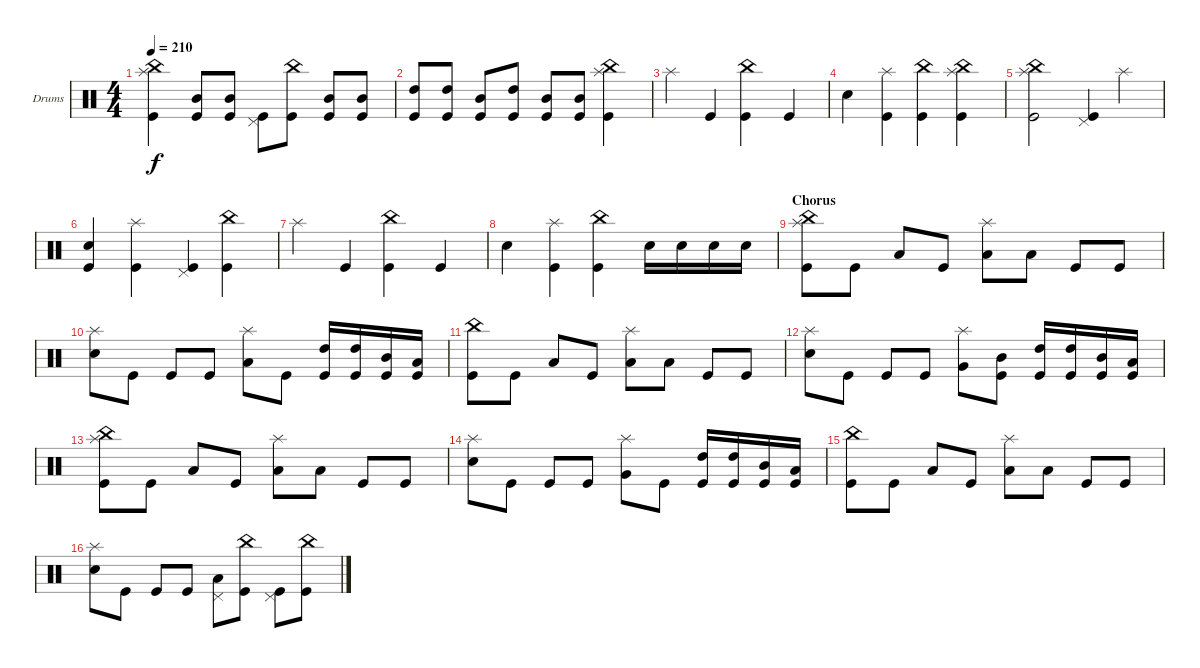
\defaultSystemsLayout 4
\bracketExtendMode groupsimilarinstruments
\firstSystemTrackNameOrientation horizontal
\otherSystemsTrackNameOrientation horizontal
\track ("Drumkit" "Drums") {instrument percussion}
\staff {score}
\articulation defaults
\ts (4 4)
\tempo 210
\clef neutral
\ks c
("Kick (hit)" "China (hit)" "Splash (hit)").4{dy f} ("Kick (hit)" "Mid Tom (hit)").8 ("Kick (hit)" "Mid Tom (hit)").8 ("Kick (hit)" "Pedal Hi-Hat (hit)").8 ("Kick (hit)" "China (hit)").8 ("Kick (hit)" "Mid Tom (hit)").8 ("Kick (hit)" "Mid Tom (hit)").8 |
("Kick (hit)" "High Tom (hit)").8 ("Kick (hit)" "High Tom (hit)").8 ("Kick (hit)" "Mid Tom (hit)").8 ("Kick (hit)" "High Tom (hit)").8 ("Kick (hit)" "Mid Tom (hit)").8 ("Kick (hit)" "Mid Tom (hit)").8 ("Kick (hit)" "Splash (hit)" "China (hit)").4 |
"Splash (hit)".4 "Kick (hit)".4 ("Kick (hit)" "China (hit)").4 "Kick (hit)".4 |
"Snare (hit) 2".4 ("Kick (hit)" "Splash (hit)").4 ("Kick (hit)" "China (hit)").4 ("Kick (hit)" "China (hit)" "Splash (hit)").4 |
("Splash (hit)" "China (hit)" "Kick (hit)").2 ("Kick (hit)" "Pedal Hi-Hat (hit)").4 "Splash (hit)".4 |
("Kick (hit)" "Snare (hit) 2").4 ("Kick (hit)" "Splash (hit)").4 ("Kick (hit)" "Pedal Hi-Hat (hit)").4 ("Kick (hit)" "China (hit)").4 |
"Splash (hit)".4 "Kick (hit)".4 ("Kick (hit)" "China (hit)").4 "Kick (hit)".4 |
"Snare (hit) 2".4 ("Kick (hit)" "Splash (hit)").4 ("Kick (hit)" "China (hit)").4 "Snare (hit) 2".16 "Snare (hit) 2".16 "Snare (hit) 2".16 "Snare (hit) 2".16 |
\section ("" "Chorus")
("Kick (hit)" "Splash (hit)" "China (hit)").8 "Kick (hit)".8 "Low Tom (hit)".8 "Kick (hit)".8 ("Splash (hit)" "Low Tom (hit)").8 "Low Tom (hit)".8 "Kick (hit)".8 "Kick (hit)".8 |
("Snare (hit) 2" "Splash (hit)").8 "Kick (hit)".8 "Kick (hit)".8 "Kick (hit)".8 ("Splash (hit)" "Low Tom (hit)").8 "Kick (hit)".8 ("High Tom (hit)" "Kick (hit)").16 ("High Tom (hit)" "Kick (hit)").16 ("Mid Tom (hit)" "Kick (hit)").16 ("Low Tom (hit)" "Kick (hit)").16 |
("China (hit)" "Kick (hit)").8 "Kick (hit)".8 "Low Tom (hit)".8 "Kick (hit)".8 ("Splash (hit)" "Low Tom (hit)").8 "Low Tom (hit)".8 "Kick (hit)".8 "Kick (hit)".8 |
("Splash (hit)" "Snare (hit) 2").8 "Kick (hit)".8 "Kick (hit)".8 "Kick (hit)".8 ("Splash (hit)" "Very Low Tom (hit)").8 ("Kick (hit)" "Mid Tom (hit)").8 ("High Tom (hit)" "Kick (hit)").16 ("High Tom (hit)" "Kick (hit)").16 ("Mid Tom (hit)" "Kick (hit)").16 ("Low Tom (hit)" "Kick (hit)").16 |
("Kick (hit)" "Splash (hit)" "China (hit)").8 "Kick (hit)".8 "Low Tom (hit)".8 "Kick (hit)".8 ("Splash (hit)" "Low Tom (hit)").8 "Low Tom (hit)".8 "Kick (hit)".8 "Kick (hit)".8 |
("Snare (hit) 2" "Splash (hit)").8 "Kick (hit)".8 "Kick (hit)".8 "Kick (hit)".8 ("Splash (hit)" "Very Low Tom (hit)").8 "Kick (hit)".8 ("High Tom (hit)" "Kick (hit)").16 ("High Tom (hit)" "Kick (hit)").16 ("Mid Tom (hit)" "Kick (hit)").16 ("Low Tom (hit)" "Kick (hit)").16 |
("China (hit)" "Kick (hit)").8 "Kick (hit)".8 "Low Tom (hit)".8 "Kick (hit)".8 ("Splash (hit)" "Low Tom (hit)").8 "Low Tom (hit)".8 "Kick (hit)".8 "Kick (hit)".8 |
("Splash (hit)" "Snare (hit) 2").8 "Kick (hit)".8 "Kick (hit)".8 "Kick (hit)".8 ("Low Tom (hit)" "Pedal Hi-Hat (hit)").8 ("Kick (hit)" "China (hit)").8 ("Kick (hit)" "Pedal Hi-Hat (hit)").8 ("Kick (hit)" "China (hit)").8
